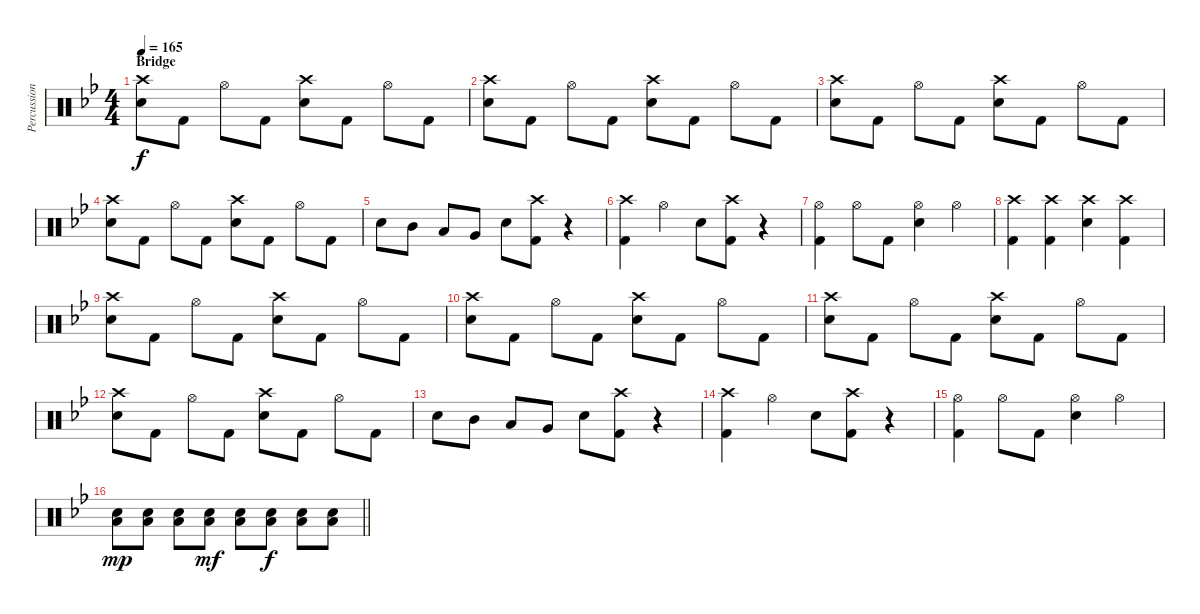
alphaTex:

\track ("Percussion - Aaron" "Percussion") {instrument percussion}
\staff {score}
\articulation defaults
\ts (4 4)
\section ("" "Bridge")
\tempo 165
\clef neutral
\ks gminor
("Crash high (hit)" "Electric Snare (hit)").8{dy f} "Kick (hit) 2".8 "Hi-Hat (open)".8 "Kick (hit) 2".8 ("Crash high (hit)" "Electric Snare (hit)").8 "Kick (hit) 2".8 "Hi-Hat (open)".8 "Kick (hit) 2".8 |
("Crash high (hit)" "Electric Snare (hit)").8 "Kick (hit) 2".8 "Hi-Hat (open)".8 "Kick (hit) 2".8 ("Crash high (hit)" "Electric Snare (hit)").8 "Kick (hit) 2".8 "Hi-Hat (open)".8 "Kick (hit) 2".8 |
("Crash high (hit)" "Electric Snare (hit)").8 "Kick (hit) 2".8 "Hi-Hat (open)".8 "Kick (hit) 2".8 ("Crash high (hit)" "Electric Snare (hit)").8 "Kick (hit) 2".8 "Hi-Hat (open)".8 "Kick (hit) 2".8 |
("Crash high (hit)" "Electric Snare (hit)").8 "Kick (hit) 2".8 "Hi-Hat (open)".8 "Kick (hit) 2".8 ("Crash high (hit)" "Electric Snare (hit)").8 "Kick (hit) 2".8 "Hi-Hat (open)".8 "Kick (hit) 2".8 |
"Electric Snare (hit)".8 "Mid Tom (hit)".8 "Low Tom (hit)".8 "Very Low Tom (hit)".8 "Electric Snare (hit)".8 ("Crash high (hit)" "Kick (hit) 2").8 r.4 |
("Crash high (hit)" "Kick (hit) 2").4 "Hi-Hat (open)".4 "Electric Snare (hit)".8 ("Crash high (hit)" "Kick (hit) 2").8 r.4 |
("Hi-Hat (open)" "Kick (hit) 2").4 "Hi-Hat (open)".8 "Kick (hit) 2".8 ("Hi-Hat (open)" "Electric Snare (hit)").4 "Hi-Hat (open)".4 |
("Crash high (hit)" "Kick (hit) 2").4 ("Crash high (hit)" "Kick (hit) 2").4 ("Crash high (hit)" "Electric Snare (hit)").4 ("Crash high (hit)" "Kick (hit) 2").4 |
("Crash high (hit)" "Electric Snare (hit)").8 "Kick (hit) 2".8 "Hi-Hat (open)".8 "Kick (hit) 2".8 ("Crash high (hit)" "Electric Snare (hit)").8 "Kick (hit) 2".8 "Hi-Hat (open)".8 "Kick (hit) 2".8 |
("Crash high (hit)" "Electric Snare (hit)").8 "Kick (hit) 2".8 "Hi-Hat (open)".8 "Kick (hit) 2".8 ("Crash high (hit)" "Electric Snare (hit)").8 "Kick (hit) 2".8 "Hi-Hat (open)".8 "Kick (hit) 2".8 |
("Crash high (hit)" "Electric Snare (hit)").8 "Kick (hit) 2".8 "Hi-Hat (open)".8 "Kick (hit) 2".8 ("Crash high (hit)" "Electric Snare (hit)").8 "Kick (hit) 2".8 "Hi-Hat (open)".8 "Kick (hit) 2".8 |
("Crash high (hit)" "Electric Snare (hit)").8 "Kick (hit) 2".8 "Hi-Hat (open)".8 "Kick (hit) 2".8 ("Crash high (hit)" "Electric Snare (hit)").8 "Kick (hit) 2".8 "Hi-Hat (open)".8 "Kick (hit) 2".8 |
"Electric Snare (hit)".8 "Mid Tom (hit)".8 "Low Tom (hit)".8 "Very Low Tom (hit)".8 "Electric Snare (hit)".8 ("Crash high (hit)" "Kick (hit) 2").8 r.4 |
("Crash high (hit)" "Kick (hit) 2").4 "Hi-Hat (open)".4 "Electric Snare (hit)".8 ("Crash high (hit)" "Kick (hit) 2").8 r.4 |
("Hi-Hat (open)" "Kick (hit) 2").4 "Hi-Hat (open)".8 "Kick (hit) 2".8 ("Hi-Hat (open)" "Electric Snare (hit)").4 "Hi-Hat (open)".4 |
\barLineRight lightlight
("Low Tom (hit)" "Electric Snare (hit)").8{dy mp} ("Low Tom (hit)" "Electric Snare (hit)").8 ("Low Tom (hit)" "Electric Snare (hit)").8 ("Low Tom (hit)" "Electric Snare (hit)").8{dy mf} ("Low Tom (hit)" "Electric Snare (hit)").8 ("Low Tom (hit)" "Electric Snare (hit)").8{dy f} ("Low Tom (hit)" "Electric Snare (hit)").8 ("Low Tom (hit)" "Electric Snare (hit)").8
